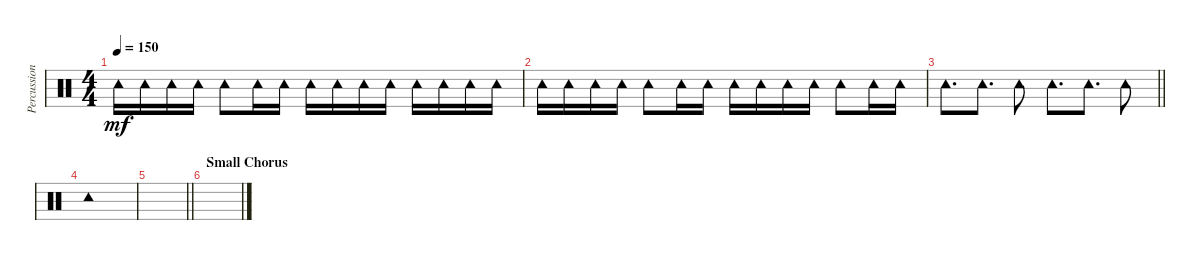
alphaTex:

\track ("Percussion" "Percussion") {instrument percussion}
\staff {score}
\articulation defaults
\ts (4 4)
\tempo 150
\clef neutral
\ks c "Tambourine (hit)".16{dy mf} "Tambourine (hit)".16 "Tambourine (hit)".16 "Tambourine (hit)".16 "Tambourine (hit)".8 "Tambourine (hit)".16 "Tambourine (hit)".16 "Tambourine (hit)".16 "Tambourine (hit)".16 "Tambourine (hit)".16 "Tambourine (hit)".16 "Tambourine (hit)".16 "Tambourine (hit)".16 "Tambourine (hit)".16 "Tambourine (hit)".16
|
"Tambourine (hit)".16 "Tambourine (hit)".16 "Tambourine (hit)".16 "Tambourine (hit)".16 "Tambourine (hit)".8 "Tambourine (hit)".16 "Tambourine (hit)".16 "Tambourine (hit)".16 "Tambourine (hit)".16 "Tambourine (hit)".16 "Tambourine (hit)".16 "Tambourine (hit)".8 "Tambourine (hit)".16 "Tambourine (hit)".16 |
\barLineRight lightlight "Tambourine (hit)".8{d} "Tambourine (hit)".8{d} "Tambourine (hit)".8 "Tambourine (hit)".8{d} "Tambourine (hit)".8{d} "Tambourine (hit)".8
|
"Tambourine (hit)".1 |
\barLineRight lightlight
|
\section ("" "Small Chorus")
